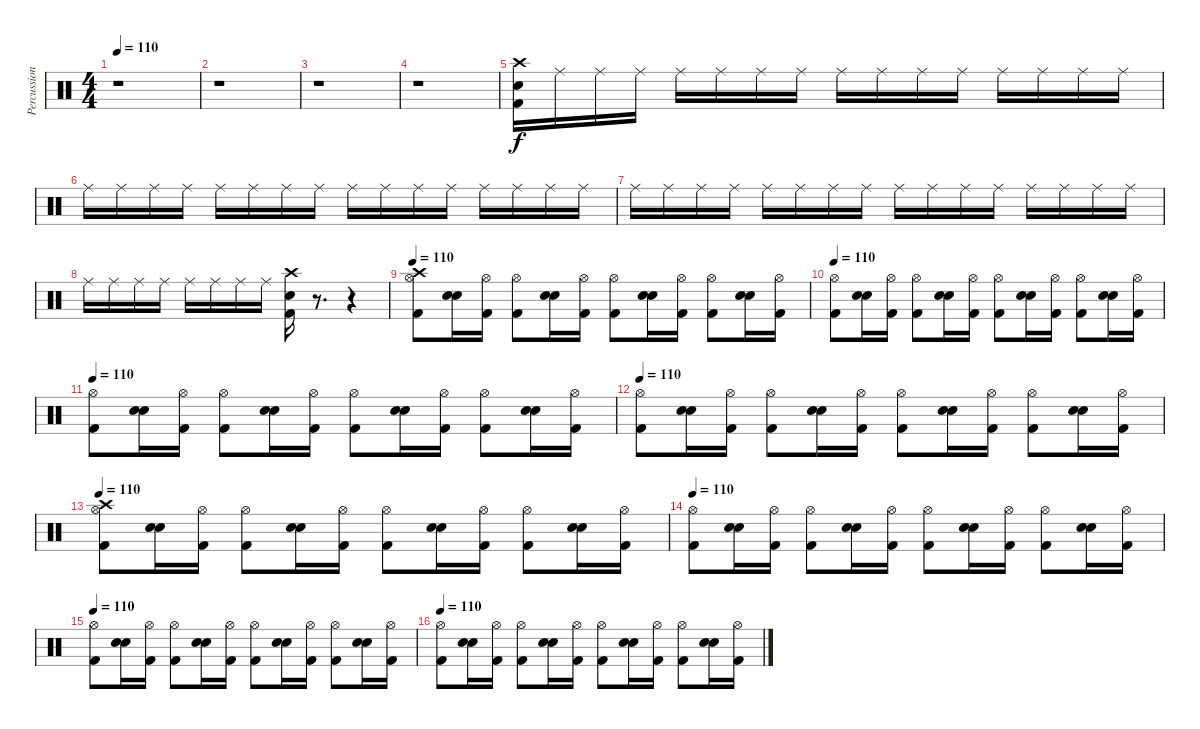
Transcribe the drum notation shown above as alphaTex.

\track ("Percussions" "Percussion") {instrument percussion}
\staff {score}
\articulation defaults
\ts (4 4)
\tempo 110
\clef neutral
\ks c
r.1{dy f} |
r.1 |
r.1 |
r.1 |
("Kick (hit) 2" "Snare (hit) 2" "Crash high (hit)").16 "Ride (middle)".16 "Ride (middle)".16 "Ride (middle)".16 "Ride (middle)".16 "Ride (middle)".16 "Ride (middle)".16 "Ride (middle)".16 "Ride (middle)".16 "Ride (middle)".16 "Ride (middle)".16 "Ride (middle)".16 "Ride (middle)".16 "Ride (middle)".16 "Ride (middle)".16 "Ride (middle)".16 |
"Ride (middle)".16 "Ride (middle)".16 "Ride (middle)".16 "Ride (middle)".16 "Ride (middle)".16 "Ride (middle)".16 "Ride (middle)".16 "Ride (middle)".16 "Ride (middle)".16 "Ride (middle)".16 "Ride (middle)".16 "Ride (middle)".16 "Ride (middle)".16 "Ride (middle)".16 "Ride (middle)".16 "Ride (middle)".16 |
"Ride (middle)".16 "Ride (middle)".16 "Ride (middle)".16 "Ride (middle)".16 "Ride (middle)".16 "Ride (middle)".16 "Ride (middle)".16 "Ride (middle)".16 "Ride (middle)".16 "Ride (middle)".16 "Ride (middle)".16 "Ride (middle)".16 "Ride (middle)".16 "Ride (middle)".16 "Ride (middle)".16 "Ride (middle)".16 |
"Ride (middle)".16 "Ride (middle)".16 "Ride (middle)".16 "Ride (middle)".16 "Ride (middle)".16 "Ride (middle)".16 "Ride (middle)".16 "Ride (middle)".16 ("Kick (hit) 2" "Snare (hit) 2" "Crash high (hit)").16 r.8{d} r.4 |
\tempo 110
("Kick (hit) 2" "Hi-Hat (open)" "Crash high (hit)").8{volume 11} ("Snare (hit) 2" "Snare (hit) 2").16 ("Kick (hit) 2" "Hi-Hat (open)").16 ("Kick (hit) 2" "Hi-Hat (open)").8 ("Snare (hit) 2" "Snare (hit) 2").16 ("Kick (hit) 2" "Hi-Hat (open)").16 ("Kick (hit) 2" "Hi-Hat (open)").8 ("Snare (hit) 2" "Snare (hit) 2").16 ("Kick (hit) 2" "Hi-Hat (open)").16 ("Kick (hit) 2" "Hi-Hat (open)").8 ("Snare (hit) 2" "Snare (hit) 2").16 ("Kick (hit) 2" "Hi-Hat (open)").16 |
\tempo 110
("Kick (hit) 2" "Hi-Hat (open)").8{volume 9} ("Snare (hit) 2" "Snare (hit) 2").16 ("Kick (hit) 2" "Hi-Hat (open)").16 ("Kick (hit) 2" "Hi-Hat (open)").8 ("Snare (hit) 2" "Snare (hit) 2").16 ("Kick (hit) 2" "Hi-Hat (open)").16 ("Kick (hit) 2" "Hi-Hat (open)").8 ("Snare (hit) 2" "Snare (hit) 2").16 ("Kick (hit) 2" "Hi-Hat (open)").16 ("Kick (hit) 2" "Hi-Hat (open)").8 ("Snare (hit) 2" "Snare (hit) 2").16 ("Kick (hit) 2" "Hi-Hat (open)").16 |
\tempo 110
("Kick (hit) 2" "Hi-Hat (open)").8{volume 7} ("Snare (hit) 2" "Snare (hit) 2").16 ("Kick (hit) 2" "Hi-Hat (open)").16 ("Kick (hit) 2" "Hi-Hat (open)").8 ("Snare (hit) 2" "Snare (hit) 2").16 ("Kick (hit) 2" "Hi-Hat (open)").16 ("Kick (hit) 2" "Hi-Hat (open)").8 ("Snare (hit) 2" "Snare (hit) 2").16 ("Kick (hit) 2" "Hi-Hat (open)").16 ("Kick (hit) 2" "Hi-Hat (open)").8 ("Snare (hit) 2" "Snare (hit) 2").16 ("Kick (hit) 2" "Hi-Hat (open)").16 |
\tempo 110
("Kick (hit) 2" "Hi-Hat (open)").8{volume 6} ("Snare (hit) 2" "Snare (hit) 2").16 ("Kick (hit) 2" "Hi-Hat (open)").16 ("Kick (hit) 2" "Hi-Hat (open)").8 ("Snare (hit) 2" "Snare (hit) 2").16 ("Kick (hit) 2" "Hi-Hat (open)").16 ("Kick (hit) 2" "Hi-Hat (open)").8 ("Snare (hit) 2" "Snare (hit) 2").16 ("Kick (hit) 2" "Hi-Hat (open)").16 ("Kick (hit) 2" "Hi-Hat (open)").8 ("Snare (hit) 2" "Snare (hit) 2").16 ("Kick (hit) 2" "Hi-Hat (open)").16 |
\tempo 110
("Kick (hit) 2" "Hi-Hat (open)" "Crash high (hit)").8{volume 5} ("Snare (hit) 2" "Snare (hit) 2").16 ("Kick (hit) 2" "Hi-Hat (open)").16 ("Kick (hit) 2" "Hi-Hat (open)").8 ("Snare (hit) 2" "Snare (hit) 2").16 ("Kick (hit) 2" "Hi-Hat (open)").16 ("Kick (hit) 2" "Hi-Hat (open)").8 ("Snare (hit) 2" "Snare (hit) 2").16 ("Kick (hit) 2" "Hi-Hat (open)").16 ("Kick (hit) 2" "Hi-Hat (open)").8 ("Snare (hit) 2" "Snare (hit) 2").16 ("Kick (hit) 2" "Hi-Hat (open)").16 |
\tempo 110
("Kick (hit) 2" "Hi-Hat (open)").8{volume 4} ("Snare (hit) 2" "Snare (hit) 2").16 ("Kick (hit) 2" "Hi-Hat (open)").16 ("Kick (hit) 2" "Hi-Hat (open)").8 ("Snare (hit) 2" "Snare (hit) 2").16 ("Kick (hit) 2" "Hi-Hat (open)").16 ("Kick (hit) 2" "Hi-Hat (open)").8 ("Snare (hit) 2" "Snare (hit) 2").16 ("Kick (hit) 2" "Hi-Hat (open)").16 ("Kick (hit) 2" "Hi-Hat (open)").8 ("Snare (hit) 2" "Snare (hit) 2").16 ("Kick (hit) 2" "Hi-Hat (open)").16 |
\tempo 110
("Kick (hit) 2" "Hi-Hat (open)").8{volume 2} ("Snare (hit) 2" "Snare (hit) 2").16 ("Kick (hit) 2" "Hi-Hat (open)").16 ("Kick (hit) 2" "Hi-Hat (open)").8 ("Snare (hit) 2" "Snare (hit) 2").16 ("Kick (hit) 2" "Hi-Hat (open)").16 ("Kick (hit) 2" "Hi-Hat (open)").8 ("Snare (hit) 2" "Snare (hit) 2").16 ("Kick (hit) 2" "Hi-Hat (open)").16 ("Kick (hit) 2" "Hi-Hat (open)").8 ("Snare (hit) 2" "Snare (hit) 2").16 ("Kick (hit) 2" "Hi-Hat (open)").16 |
\tempo 110
("Kick (hit) 2" "Hi-Hat (open)").8{volume 1} ("Snare (hit) 2" "Snare (hit) 2").16 ("Kick (hit) 2" "Hi-Hat (open)").16 ("Kick (hit) 2" "Hi-Hat (open)").8 ("Snare (hit) 2" "Snare (hit) 2").16 ("Kick (hit) 2" "Hi-Hat (open)").16 ("Kick (hit) 2" "Hi-Hat (open)").8 ("Snare (hit) 2" "Snare (hit) 2").16 ("Kick (hit) 2" "Hi-Hat (open)").16 ("Kick (hit) 2" "Hi-Hat (open)").8 ("Snare (hit) 2" "Snare (hit) 2").16 ("Kick (hit) 2" "Hi-Hat (open)").16
